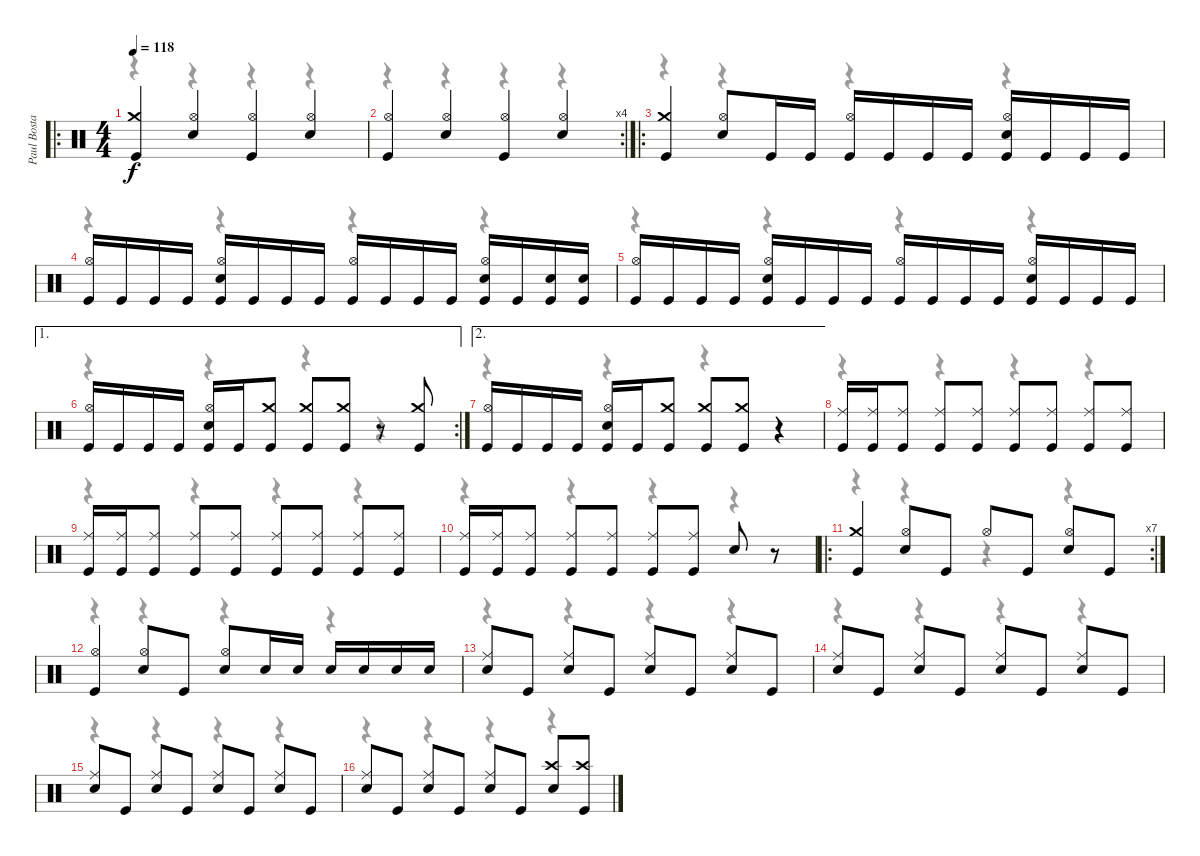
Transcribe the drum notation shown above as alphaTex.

\track ("Paul Bostaph" "Paul Bosta") {instrument percussion}
\staff {score}
\articulation defaults
\voice
\ro
\ts (4 4)
\tempo 118
\clef neutral
\ks c
("Crash medium (hit)" "Kick (hit)").4{dy f} ("Hi-Hat (open)" "Snare (hit) 2").4 ("Hi-Hat (open)" "Kick (hit)").4 ("Hi-Hat (open)" "Snare (hit) 2").4 |
\rc 4
("Hi-Hat (open)" "Kick (hit)").4 ("Hi-Hat (open)" "Snare (hit) 2").4 ("Hi-Hat (open)" "Kick (hit)").4 ("Hi-Hat (open)" "Snare (hit) 2").4 |
\ro
("Crash medium (hit)" "Kick (hit)").4 ("Hi-Hat (open)" "Snare (hit) 2").8 "Kick (hit)".16 "Kick (hit)".16 ("Hi-Hat (open)" "Kick (hit)").16 "Kick (hit)".16 "Kick (hit)".16 "Kick (hit)".16 ("Hi-Hat (open)" "Snare (hit) 2" "Kick (hit)").16 "Kick (hit)".16 "Kick (hit)".16 "Kick (hit)".16 |
("Hi-Hat (open)" "Kick (hit)").16 "Kick (hit)".16 "Kick (hit)".16 "Kick (hit)".16 ("Hi-Hat (open)" "Snare (hit) 2" "Kick (hit)").16 "Kick (hit)".16 "Kick (hit)".16 "Kick (hit)".16 ("Hi-Hat (open)" "Kick (hit)").16 "Kick (hit)".16 "Kick (hit)".16 "Kick (hit)".16 ("Hi-Hat (open)" "Snare (hit) 2" "Kick (hit)").16 "Kick (hit)".16 ("Snare (hit) 2" "Kick (hit)").16 ("Snare (hit) 2" "Kick (hit)").16 |
("Hi-Hat (open)" "Kick (hit)").16 "Kick (hit)".16 "Kick (hit)".16 "Kick (hit)".16 ("Hi-Hat (open)" "Snare (hit) 2" "Kick (hit)").16 "Kick (hit)".16 "Kick (hit)".16 "Kick (hit)".16 ("Hi-Hat (open)" "Kick (hit)").16 "Kick (hit)".16 "Kick (hit)".16 "Kick (hit)".16 ("Hi-Hat (open)" "Snare (hit) 2" "Kick (hit)").16 "Kick (hit)".16 "Kick (hit)".16 "Kick (hit)".16 |
\ae 1
\rc 2
("Hi-Hat (open)" "Kick (hit)").16 "Kick (hit)".16 "Kick (hit)".16 "Kick (hit)".16 ("Hi-Hat (open)" "Snare (hit) 2" "Kick (hit)").16 "Kick (hit)".16 ("Crash medium (hit)" "Kick (hit)").8 ("Crash medium (hit)" "Kick (hit)").8 ("Crash medium (hit)" "Kick (hit)").8 r.8 ("Crash medium (hit)" "Kick (hit)").8 |
\ae 2
("Hi-Hat (open)" "Kick (hit)").16 "Kick (hit)".16 "Kick (hit)".16 "Kick (hit)".16 ("Hi-Hat (open)" "Snare (hit) 2" "Kick (hit)").16 "Kick (hit)".16 ("Crash medium (hit)" "Kick (hit)").8 ("Crash medium (hit)" "Kick (hit)").8 ("Crash medium (hit)" "Kick (hit)").8 r.4 |
("Ride (middle)" "Kick (hit)").16 ("Ride (middle)" "Kick (hit)").16 ("Ride (middle)" "Kick (hit)").8 ("Ride (middle)" "Kick (hit)").8 ("Ride (middle)" "Kick (hit)").8 ("Ride (middle)" "Kick (hit)").8 ("Ride (middle)" "Kick (hit)").8 ("Ride (middle)" "Kick (hit)").8 ("Ride (middle)" "Kick (hit)").8 |
("Ride (middle)" "Kick (hit)").16 ("Ride (middle)" "Kick (hit)").16 ("Ride (middle)" "Kick (hit)").8 ("Ride (middle)" "Kick (hit)").8 ("Ride (middle)" "Kick (hit)").8 ("Ride (middle)" "Kick (hit)").8 ("Ride (middle)" "Kick (hit)").8 ("Ride (middle)" "Kick (hit)").8 ("Ride (middle)" "Kick (hit)").8 |
("Ride (middle)" "Kick (hit)").16 ("Ride (middle)" "Kick (hit)").16 ("Ride (middle)" "Kick (hit)").8 ("Ride (middle)" "Kick (hit)").8 ("Ride (middle)" "Kick (hit)").8 ("Ride (middle)" "Kick (hit)").8 ("Ride (middle)" "Kick (hit)").8 "Snare (hit) 2".8 r.8 |
\ro
\rc 7
("Crash medium (hit)" "Kick (hit)").4 ("Hi-Hat (open)" "Snare (hit) 2").8 "Kick (hit)".8 "Hi-Hat (open)".8 "Kick (hit)".8 ("Hi-Hat (open)" "Snare (hit) 2").8 "Kick (hit)".8 |
("Hi-Hat (open)" "Kick (hit)").4 ("Hi-Hat (open)" "Snare (hit) 2").8 "Kick (hit)".8 ("Hi-Hat (open)" "Snare (hit) 2").8 "Snare (hit) 2".16 "Snare (hit) 2".16 "Snare (hit) 2".16 "Snare (hit) 2".16 "Snare (hit) 2".16 "Snare (hit) 2".16 |
("Ride (middle)" "Snare (hit) 2").8 "Kick (hit)".8 ("Ride (middle)" "Snare (hit) 2").8 "Kick (hit)".8 ("Ride (middle)" "Snare (hit) 2").8 "Kick (hit)".8 ("Ride (middle)" "Snare (hit) 2").8 "Kick (hit)".8 |
("Ride (middle)" "Snare (hit) 2").8 "Kick (hit)".8 ("Ride (middle)" "Snare (hit) 2").8 "Kick (hit)".8 ("Ride (middle)" "Snare (hit) 2").8 "Kick (hit)".8 ("Ride (middle)" "Snare (hit) 2").8 "Kick (hit)".8 |
("Ride (middle)" "Snare (hit) 2").8 "Kick (hit)".8 ("Ride (middle)" "Snare (hit) 2").8 "Kick (hit)".8 ("Ride (middle)" "Snare (hit) 2").8 "Kick (hit)".8 ("Ride (middle)" "Snare (hit) 2").8 "Kick (hit)".8 |
("Ride (middle)" "Snare (hit) 2").8 "Kick (hit)".8 ("Ride (middle)" "Snare (hit) 2").8 "Kick (hit)".8 ("Ride (middle)" "Snare (hit) 2").8 "Kick (hit)".8 ("Crash high (hit)" "Snare (hit) 2").8 ("Crash high (hit)" "Kick (hit)").8
\voice
\clef neutral
\ottava regular
\simile none
\ks c
r.4{dy f} r.4 r.4 r.4 |
r.4 r.4 r.4 r.4 |
r.4 r.4 r.4 r.4 |
r.4 r.4 r.4 r.4 |
r.4 r.4 r.4 r.4 |
r.4 r.4 r.4 r.4 |
r.4 r.4 r.4 r.4 |
r.4 r.4 r.4 r.4 |
r.4 r.4 r.4 r.4 |
r.4 r.4 r.4 r.4 |
r.4 r.4 r.4 r.4 |
r.4 r.4 r.4 r.4 |
r.4 r.4 r.4 r.4 |
r.4 r.4 r.4 r.4 |
r.4 r.4 r.4 r.4 |
r.4 r.4 r.4 r.4
